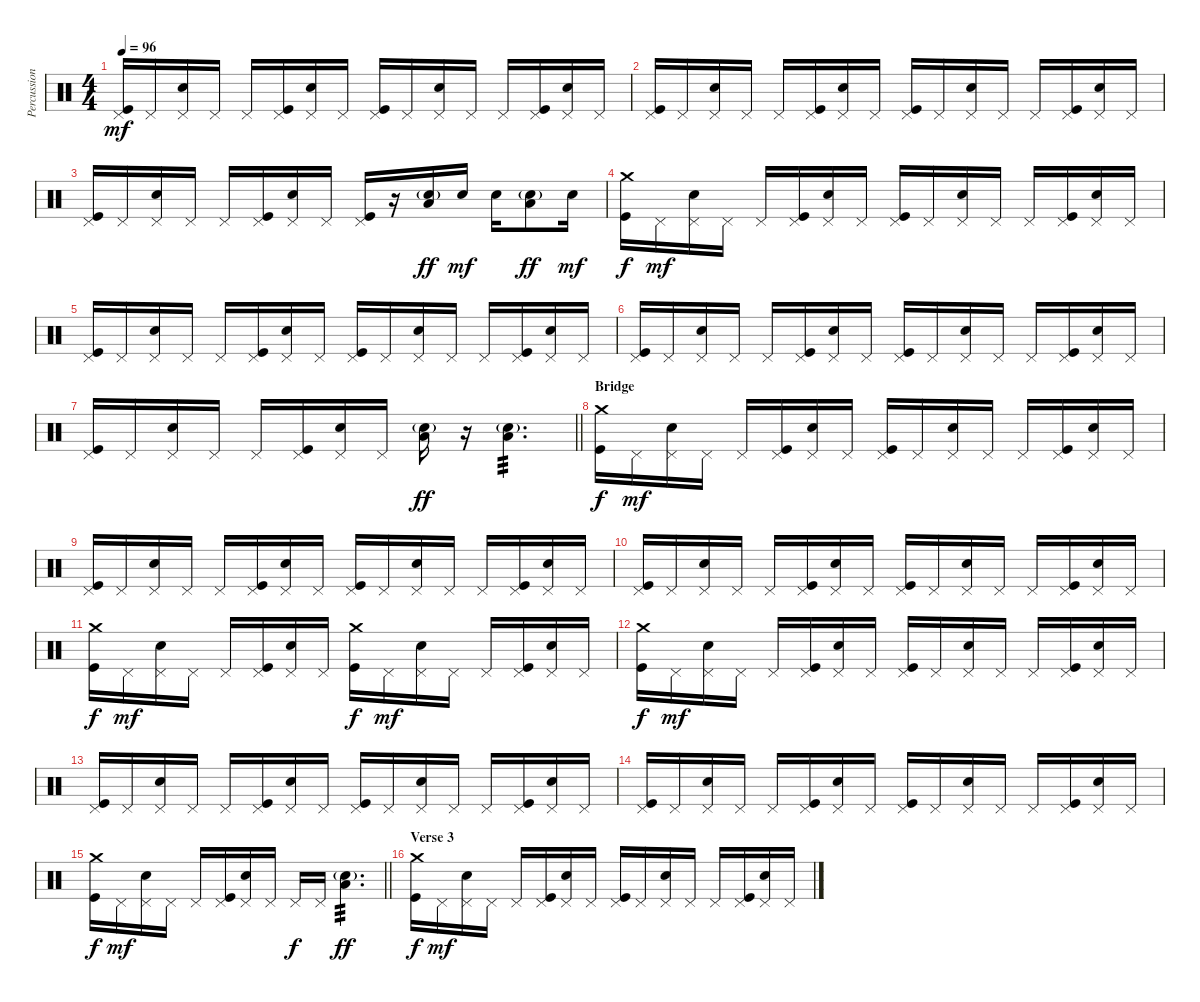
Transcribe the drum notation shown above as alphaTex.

\track ("Percussion" "Percussion") {instrument percussion}
\staff {score}
\articulation defaults
\ts (4 4)
\tempo 96
\clef neutral
\ks c
("Pedal Hi-Hat (hit)" "Kick (hit)").16{dy mf} "Pedal Hi-Hat (hit)".16 ("Pedal Hi-Hat (hit)" "Snare (hit) 2").16 "Pedal Hi-Hat (hit)".16 "Pedal Hi-Hat (hit)".16 ("Pedal Hi-Hat (hit)" "Kick (hit)").16 ("Pedal Hi-Hat (hit)" "Snare (hit) 2").16 "Pedal Hi-Hat (hit)".16 ("Pedal Hi-Hat (hit)" "Kick (hit)").16 "Pedal Hi-Hat (hit)".16 ("Pedal Hi-Hat (hit)" "Snare (hit) 2").16 "Pedal Hi-Hat (hit)".16 "Pedal Hi-Hat (hit)".16 ("Pedal Hi-Hat (hit)" "Kick (hit)").16 ("Pedal Hi-Hat (hit)" "Snare (hit) 2").16 "Pedal Hi-Hat (hit)".16 |
("Pedal Hi-Hat (hit)" "Kick (hit)").16 "Pedal Hi-Hat (hit)".16 ("Pedal Hi-Hat (hit)" "Snare (hit) 2").16 "Pedal Hi-Hat (hit)".16 "Pedal Hi-Hat (hit)".16 ("Pedal Hi-Hat (hit)" "Kick (hit)").16 ("Pedal Hi-Hat (hit)" "Snare (hit) 2").16 "Pedal Hi-Hat (hit)".16 ("Pedal Hi-Hat (hit)" "Kick (hit)").16 "Pedal Hi-Hat (hit)".16 ("Pedal Hi-Hat (hit)" "Snare (hit) 2").16 "Pedal Hi-Hat (hit)".16 "Pedal Hi-Hat (hit)".16 ("Pedal Hi-Hat (hit)" "Kick (hit)").16 ("Pedal Hi-Hat (hit)" "Snare (hit) 2").16 "Pedal Hi-Hat (hit)".16 |
("Pedal Hi-Hat (hit)" "Kick (hit)").16 "Pedal Hi-Hat (hit)".16 ("Pedal Hi-Hat (hit)" "Snare (hit) 2").16 "Pedal Hi-Hat (hit)".16 "Pedal Hi-Hat (hit)".16 ("Pedal Hi-Hat (hit)" "Kick (hit)").16 ("Pedal Hi-Hat (hit)" "Snare (hit) 2").16 "Pedal Hi-Hat (hit)".16 ("Pedal Hi-Hat (hit)" "Kick (hit)").16 r.16 ("Snare (hit) 2"{g} "Low Tom (hit)").16{dy ff} "Electric Snare (hit)".16{dy mf} "Electric Snare (hit)".16 ("Snare (hit) 2"{g} "Low Tom (hit)").8{dy ff} "Electric Snare (hit)".16{dy mf} |
("Crash medium (hit)" "Kick (hit)").16{dy f} "Pedal Hi-Hat (hit)".16{dy mf} ("Pedal Hi-Hat (hit)" "Snare (hit) 2").16 "Pedal Hi-Hat (hit)".16 "Pedal Hi-Hat (hit)".16 ("Pedal Hi-Hat (hit)" "Kick (hit)").16 ("Pedal Hi-Hat (hit)" "Snare (hit) 2").16 "Pedal Hi-Hat (hit)".16 ("Pedal Hi-Hat (hit)" "Kick (hit)").16 "Pedal Hi-Hat (hit)".16 ("Pedal Hi-Hat (hit)" "Snare (hit) 2").16 "Pedal Hi-Hat (hit)".16 "Pedal Hi-Hat (hit)".16 ("Pedal Hi-Hat (hit)" "Kick (hit)").16 ("Pedal Hi-Hat (hit)" "Snare (hit) 2").16 "Pedal Hi-Hat (hit)".16 |
("Pedal Hi-Hat (hit)" "Kick (hit)").16 "Pedal Hi-Hat (hit)".16 ("Pedal Hi-Hat (hit)" "Snare (hit) 2").16 "Pedal Hi-Hat (hit)".16 "Pedal Hi-Hat (hit)".16 ("Pedal Hi-Hat (hit)" "Kick (hit)").16 ("Pedal Hi-Hat (hit)" "Snare (hit) 2").16 "Pedal Hi-Hat (hit)".16 ("Pedal Hi-Hat (hit)" "Kick (hit)").16 "Pedal Hi-Hat (hit)".16 ("Pedal Hi-Hat (hit)" "Snare (hit) 2").16 "Pedal Hi-Hat (hit)".16 "Pedal Hi-Hat (hit)".16 ("Pedal Hi-Hat (hit)" "Kick (hit)").16 ("Pedal Hi-Hat (hit)" "Snare (hit) 2").16 "Pedal Hi-Hat (hit)".16 |
("Pedal Hi-Hat (hit)" "Kick (hit)").16 "Pedal Hi-Hat (hit)".16 ("Pedal Hi-Hat (hit)" "Snare (hit) 2").16 "Pedal Hi-Hat (hit)".16 "Pedal Hi-Hat (hit)".16 ("Pedal Hi-Hat (hit)" "Kick (hit)").16 ("Pedal Hi-Hat (hit)" "Snare (hit) 2").16 "Pedal Hi-Hat (hit)".16 ("Pedal Hi-Hat (hit)" "Kick (hit)").16 "Pedal Hi-Hat (hit)".16 ("Pedal Hi-Hat (hit)" "Snare (hit) 2").16 "Pedal Hi-Hat (hit)".16 "Pedal Hi-Hat (hit)".16 ("Pedal Hi-Hat (hit)" "Kick (hit)").16 ("Pedal Hi-Hat (hit)" "Snare (hit) 2").16 "Pedal Hi-Hat (hit)".16 |
\barLineRight lightlight
("Pedal Hi-Hat (hit)" "Kick (hit)").16 "Pedal Hi-Hat (hit)".16 ("Pedal Hi-Hat (hit)" "Snare (hit) 2").16 "Pedal Hi-Hat (hit)".16 "Pedal Hi-Hat (hit)".16 ("Pedal Hi-Hat (hit)" "Kick (hit)").16 ("Pedal Hi-Hat (hit)" "Snare (hit) 2").16 "Pedal Hi-Hat (hit)".16 ("Snare (hit) 2"{g} "Low Tom (hit)").16{dy ff} r.16 ("Snare (hit) 2"{g} "Low Tom (hit)").4{d tp 3} |
\section ("" "Bridge")
("Crash medium (hit)" "Kick (hit)").16{dy f} "Pedal Hi-Hat (hit)".16{dy mf} ("Pedal Hi-Hat (hit)" "Snare (hit) 2").16 "Pedal Hi-Hat (hit)".16 "Pedal Hi-Hat (hit)".16 ("Pedal Hi-Hat (hit)" "Kick (hit)").16 ("Pedal Hi-Hat (hit)" "Snare (hit) 2").16 "Pedal Hi-Hat (hit)".16 ("Pedal Hi-Hat (hit)" "Kick (hit)").16 "Pedal Hi-Hat (hit)".16 ("Pedal Hi-Hat (hit)" "Snare (hit) 2").16 "Pedal Hi-Hat (hit)".16 "Pedal Hi-Hat (hit)".16 ("Pedal Hi-Hat (hit)" "Kick (hit)").16 ("Pedal Hi-Hat (hit)" "Snare (hit) 2").16 "Pedal Hi-Hat (hit)".16 |
("Pedal Hi-Hat (hit)" "Kick (hit)").16 "Pedal Hi-Hat (hit)".16 ("Pedal Hi-Hat (hit)" "Snare (hit) 2").16 "Pedal Hi-Hat (hit)".16 "Pedal Hi-Hat (hit)".16 ("Pedal Hi-Hat (hit)" "Kick (hit)").16 ("Pedal Hi-Hat (hit)" "Snare (hit) 2").16 "Pedal Hi-Hat (hit)".16 ("Pedal Hi-Hat (hit)" "Kick (hit)").16 "Pedal Hi-Hat (hit)".16 ("Pedal Hi-Hat (hit)" "Snare (hit) 2").16 "Pedal Hi-Hat (hit)".16 "Pedal Hi-Hat (hit)".16 ("Pedal Hi-Hat (hit)" "Kick (hit)").16 ("Pedal Hi-Hat (hit)" "Snare (hit) 2").16 "Pedal Hi-Hat (hit)".16 |
("Pedal Hi-Hat (hit)" "Kick (hit)").16 "Pedal Hi-Hat (hit)".16 ("Pedal Hi-Hat (hit)" "Snare (hit) 2").16 "Pedal Hi-Hat (hit)".16 "Pedal Hi-Hat (hit)".16 ("Pedal Hi-Hat (hit)" "Kick (hit)").16 ("Pedal Hi-Hat (hit)" "Snare (hit) 2").16 "Pedal Hi-Hat (hit)".16 ("Pedal Hi-Hat (hit)" "Kick (hit)").16 "Pedal Hi-Hat (hit)".16 ("Pedal Hi-Hat (hit)" "Snare (hit) 2").16 "Pedal Hi-Hat (hit)".16 "Pedal Hi-Hat (hit)".16 ("Pedal Hi-Hat (hit)" "Kick (hit)").16 ("Pedal Hi-Hat (hit)" "Snare (hit) 2").16 "Pedal Hi-Hat (hit)".16 |
("Crash medium (hit)" "Kick (hit)").16{dy f} "Pedal Hi-Hat (hit)".16{dy mf} ("Pedal Hi-Hat (hit)" "Snare (hit) 2").16 "Pedal Hi-Hat (hit)".16 "Pedal Hi-Hat (hit)".16 ("Pedal Hi-Hat (hit)" "Kick (hit)").16 ("Pedal Hi-Hat (hit)" "Snare (hit) 2").16 "Pedal Hi-Hat (hit)".16 ("Crash medium (hit)" "Kick (hit)").16{dy f} "Pedal Hi-Hat (hit)".16{dy mf} ("Pedal Hi-Hat (hit)" "Snare (hit) 2").16 "Pedal Hi-Hat (hit)".16 "Pedal Hi-Hat (hit)".16 ("Pedal Hi-Hat (hit)" "Kick (hit)").16 ("Pedal Hi-Hat (hit)" "Snare (hit) 2").16 "Pedal Hi-Hat (hit)".16 |
("Crash medium (hit)" "Kick (hit)").16{dy f} "Pedal Hi-Hat (hit)".16{dy mf} ("Pedal Hi-Hat (hit)" "Snare (hit) 2").16 "Pedal Hi-Hat (hit)".16 "Pedal Hi-Hat (hit)".16 ("Pedal Hi-Hat (hit)" "Kick (hit)").16 ("Pedal Hi-Hat (hit)" "Snare (hit) 2").16 "Pedal Hi-Hat (hit)".16 ("Pedal Hi-Hat (hit)" "Kick (hit)").16 "Pedal Hi-Hat (hit)".16 ("Pedal Hi-Hat (hit)" "Snare (hit) 2").16 "Pedal Hi-Hat (hit)".16 "Pedal Hi-Hat (hit)".16 ("Pedal Hi-Hat (hit)" "Kick (hit)").16 ("Pedal Hi-Hat (hit)" "Snare (hit) 2").16 "Pedal Hi-Hat (hit)".16 |
("Pedal Hi-Hat (hit)" "Kick (hit)").16 "Pedal Hi-Hat (hit)".16 ("Pedal Hi-Hat (hit)" "Snare (hit) 2").16 "Pedal Hi-Hat (hit)".16 "Pedal Hi-Hat (hit)".16 ("Pedal Hi-Hat (hit)" "Kick (hit)").16 ("Pedal Hi-Hat (hit)" "Snare (hit) 2").16 "Pedal Hi-Hat (hit)".16 ("Pedal Hi-Hat (hit)" "Kick (hit)").16 "Pedal Hi-Hat (hit)".16 ("Pedal Hi-Hat (hit)" "Snare (hit) 2").16 "Pedal Hi-Hat (hit)".16 "Pedal Hi-Hat (hit)".16 ("Pedal Hi-Hat (hit)" "Kick (hit)").16 ("Pedal Hi-Hat (hit)" "Snare (hit) 2").16 "Pedal Hi-Hat (hit)".16 |
("Pedal Hi-Hat (hit)" "Kick (hit)").16 "Pedal Hi-Hat (hit)".16 ("Pedal Hi-Hat (hit)" "Snare (hit) 2").16 "Pedal Hi-Hat (hit)".16 "Pedal Hi-Hat (hit)".16 ("Pedal Hi-Hat (hit)" "Kick (hit)").16 ("Pedal Hi-Hat (hit)" "Snare (hit) 2").16 "Pedal Hi-Hat (hit)".16 ("Pedal Hi-Hat (hit)" "Kick (hit)").16 "Pedal Hi-Hat (hit)".16 ("Pedal Hi-Hat (hit)" "Snare (hit) 2").16 "Pedal Hi-Hat (hit)".16 "Pedal Hi-Hat (hit)".16 ("Pedal Hi-Hat (hit)" "Kick (hit)").16 ("Pedal Hi-Hat (hit)" "Snare (hit) 2").16 "Pedal Hi-Hat (hit)".16 |
\barLineRight lightlight
("Crash medium (hit)" "Kick (hit)").16{dy f} "Pedal Hi-Hat (hit)".16{dy mf} ("Pedal Hi-Hat (hit)" "Snare (hit) 2").16 "Pedal Hi-Hat (hit)".16 "Pedal Hi-Hat (hit)".16 ("Pedal Hi-Hat (hit)" "Kick (hit)").16 ("Pedal Hi-Hat (hit)" "Snare (hit) 2").16 "Pedal Hi-Hat (hit)".16 "Pedal Hi-Hat (hit)".16{dy f} "Pedal Hi-Hat (hit)".16 ("Snare (hit) 2"{g} "Low Tom (hit)").4{d tp 3 dy ff} |
\section ("" "Verse 3")
("Crash medium (hit)" "Kick (hit)").16{dy f} "Pedal Hi-Hat (hit)".16{dy mf} ("Pedal Hi-Hat (hit)" "Snare (hit) 2").16 "Pedal Hi-Hat (hit)".16 "Pedal Hi-Hat (hit)".16 ("Pedal Hi-Hat (hit)" "Kick (hit)").16 ("Pedal Hi-Hat (hit)" "Snare (hit) 2").16 "Pedal Hi-Hat (hit)".16 ("Pedal Hi-Hat (hit)" "Kick (hit)").16 "Pedal Hi-Hat (hit)".16 ("Pedal Hi-Hat (hit)" "Snare (hit) 2").16 "Pedal Hi-Hat (hit)".16 "Pedal Hi-Hat (hit)".16 ("Pedal Hi-Hat (hit)" "Kick (hit)").16 ("Pedal Hi-Hat (hit)" "Snare (hit) 2").16 "Pedal Hi-Hat (hit)".16
